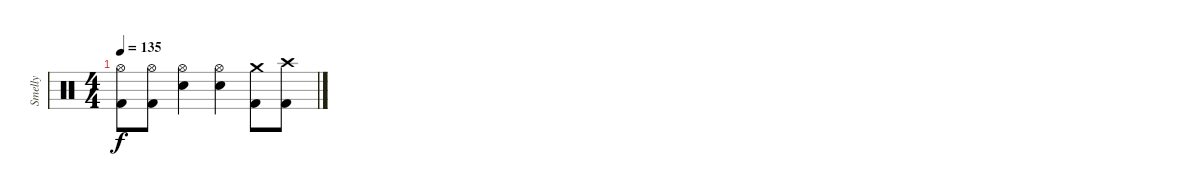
\track ("Smelly" "Smelly") {instrument percussion}
\staff {score}
\articulation defaults
\ts (4 4)
\tempo 135
\clef neutral
\ks c
("Hi-Hat (open)" "Kick (hit) 2").8{dy f} ("Hi-Hat (open)" "Kick (hit) 2").8 ("Hi-Hat (open)" "Electric Snare (hit)").4 ("Hi-Hat (open)" "Electric Snare (hit)").4 ("Crash medium (hit)" "Kick (hit) 2").8 ("Crash high (hit)" "Kick (hit) 2").8
